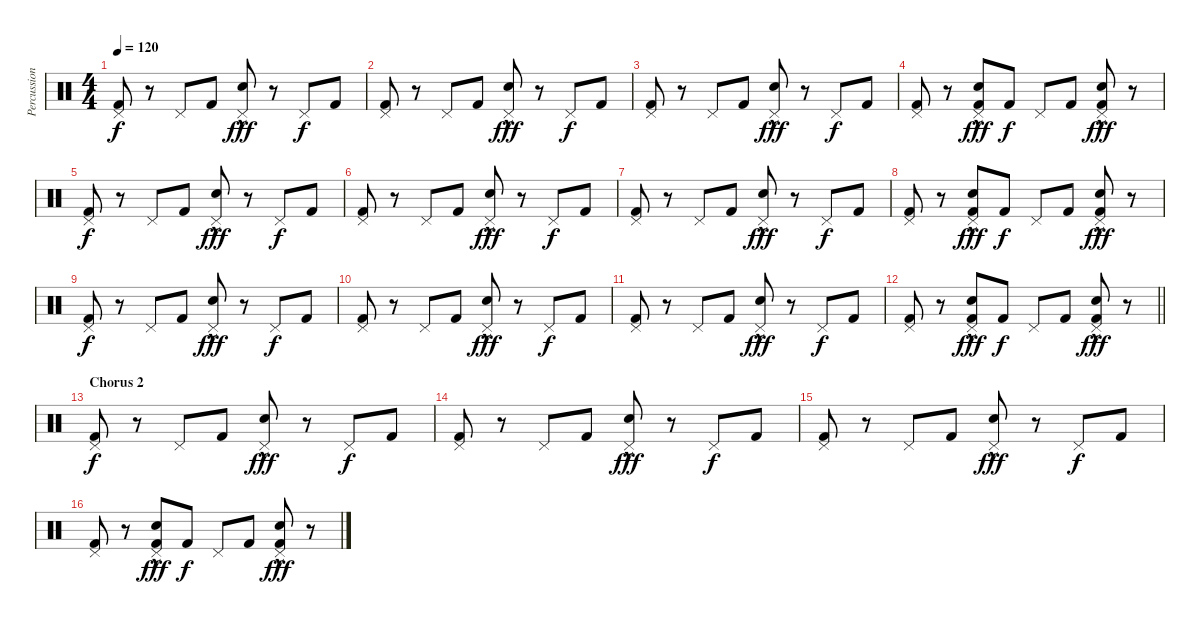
\track ("Percussion" "Percussion") {instrument percussion}
\staff {score}
\articulation defaults
\ts (4 4)
\tempo 120
\clef neutral
\ks c
("Kick (hit) 2" "Pedal Hi-Hat (hit)").8{dy f} r.8 "Pedal Hi-Hat (hit)".8 "Kick (hit) 2".8 ("Snare (hit) 2"{hac} "Pedal Hi-Hat (hit)").8{dy fff} r.8 "Pedal Hi-Hat (hit)".8{dy f} "Kick (hit) 2".8 |
("Kick (hit) 2" "Pedal Hi-Hat (hit)").8 r.8 "Pedal Hi-Hat (hit)".8 "Kick (hit) 2".8 ("Snare (hit) 2"{hac} "Pedal Hi-Hat (hit)").8{dy fff} r.8 "Pedal Hi-Hat (hit)".8{dy f} "Kick (hit) 2".8 |
("Kick (hit) 2" "Pedal Hi-Hat (hit)").8 r.8 "Pedal Hi-Hat (hit)".8 "Kick (hit) 2".8 ("Snare (hit) 2"{hac} "Pedal Hi-Hat (hit)").8{dy fff} r.8 "Pedal Hi-Hat (hit)".8{dy f} "Kick (hit) 2".8 |
("Kick (hit) 2" "Pedal Hi-Hat (hit)").8 r.8 ("Kick (hit) 2" "Snare (hit) 2"{hac} "Pedal Hi-Hat (hit)").8{dy fff} "Kick (hit) 2".8{dy f} "Pedal Hi-Hat (hit)".8 "Kick (hit) 2".8 ("Kick (hit) 2" "Snare (hit) 2"{hac} "Pedal Hi-Hat (hit)").8{dy fff} r.8 |
("Kick (hit) 2" "Pedal Hi-Hat (hit)").8{dy f} r.8 "Pedal Hi-Hat (hit)".8 "Kick (hit) 2".8 ("Snare (hit) 2"{hac} "Pedal Hi-Hat (hit)").8{dy fff} r.8 "Pedal Hi-Hat (hit)".8{dy f} "Kick (hit) 2".8 |
("Kick (hit) 2" "Pedal Hi-Hat (hit)").8 r.8 "Pedal Hi-Hat (hit)".8 "Kick (hit) 2".8 ("Snare (hit) 2"{hac} "Pedal Hi-Hat (hit)").8{dy fff} r.8 "Pedal Hi-Hat (hit)".8{dy f} "Kick (hit) 2".8 |
("Kick (hit) 2" "Pedal Hi-Hat (hit)").8 r.8 "Pedal Hi-Hat (hit)".8 "Kick (hit) 2".8 ("Snare (hit) 2"{hac} "Pedal Hi-Hat (hit)").8{dy fff} r.8 "Pedal Hi-Hat (hit)".8{dy f} "Kick (hit) 2".8 |
("Kick (hit) 2" "Pedal Hi-Hat (hit)").8 r.8 ("Kick (hit) 2" "Snare (hit) 2"{hac} "Pedal Hi-Hat (hit)").8{dy fff} "Kick (hit) 2".8{dy f} "Pedal Hi-Hat (hit)".8 "Kick (hit) 2".8 ("Kick (hit) 2" "Snare (hit) 2"{hac} "Pedal Hi-Hat (hit)").8{dy fff} r.8 |
("Kick (hit) 2" "Pedal Hi-Hat (hit)").8{dy f} r.8 "Pedal Hi-Hat (hit)".8 "Kick (hit) 2".8 ("Snare (hit) 2"{hac} "Pedal Hi-Hat (hit)").8{dy fff} r.8 "Pedal Hi-Hat (hit)".8{dy f} "Kick (hit) 2".8 |
("Kick (hit) 2" "Pedal Hi-Hat (hit)").8 r.8 "Pedal Hi-Hat (hit)".8 "Kick (hit) 2".8 ("Snare (hit) 2"{hac} "Pedal Hi-Hat (hit)").8{dy fff} r.8 "Pedal Hi-Hat (hit)".8{dy f} "Kick (hit) 2".8 |
("Kick (hit) 2" "Pedal Hi-Hat (hit)").8 r.8 "Pedal Hi-Hat (hit)".8 "Kick (hit) 2".8 ("Snare (hit) 2"{hac} "Pedal Hi-Hat (hit)").8{dy fff} r.8 "Pedal Hi-Hat (hit)".8{dy f} "Kick (hit) 2".8 |
\barLineRight lightlight
("Kick (hit) 2" "Pedal Hi-Hat (hit)").8 r.8 ("Kick (hit) 2" "Snare (hit) 2"{hac} "Pedal Hi-Hat (hit)").8{dy fff} "Kick (hit) 2".8{dy f} "Pedal Hi-Hat (hit)".8 "Kick (hit) 2".8 ("Kick (hit) 2" "Snare (hit) 2"{hac} "Pedal Hi-Hat (hit)").8{dy fff} r.8 |
\section ("" "Chorus 2")
("Kick (hit) 2" "Pedal Hi-Hat (hit)").8{dy f} r.8 "Pedal Hi-Hat (hit)".8 "Kick (hit) 2".8 ("Snare (hit) 2"{hac} "Pedal Hi-Hat (hit)").8{dy fff} r.8 "Pedal Hi-Hat (hit)".8{dy f} "Kick (hit) 2".8 |
("Kick (hit) 2" "Pedal Hi-Hat (hit)").8 r.8 "Pedal Hi-Hat (hit)".8 "Kick (hit) 2".8 ("Snare (hit) 2"{hac} "Pedal Hi-Hat (hit)").8{dy fff} r.8 "Pedal Hi-Hat (hit)".8{dy f} "Kick (hit) 2".8 |
("Kick (hit) 2" "Pedal Hi-Hat (hit)").8 r.8 "Pedal Hi-Hat (hit)".8 "Kick (hit) 2".8 ("Snare (hit) 2"{hac} "Pedal Hi-Hat (hit)").8{dy fff} r.8 "Pedal Hi-Hat (hit)".8{dy f} "Kick (hit) 2".8 |
("Kick (hit) 2" "Pedal Hi-Hat (hit)").8 r.8 ("Kick (hit) 2" "Snare (hit) 2"{hac} "Pedal Hi-Hat (hit)").8{dy fff} "Kick (hit) 2".8{dy f} "Pedal Hi-Hat (hit)".8 "Kick (hit) 2".8 ("Kick (hit) 2" "Snare (hit) 2"{hac} "Pedal Hi-Hat (hit)").8{dy fff} r.8
